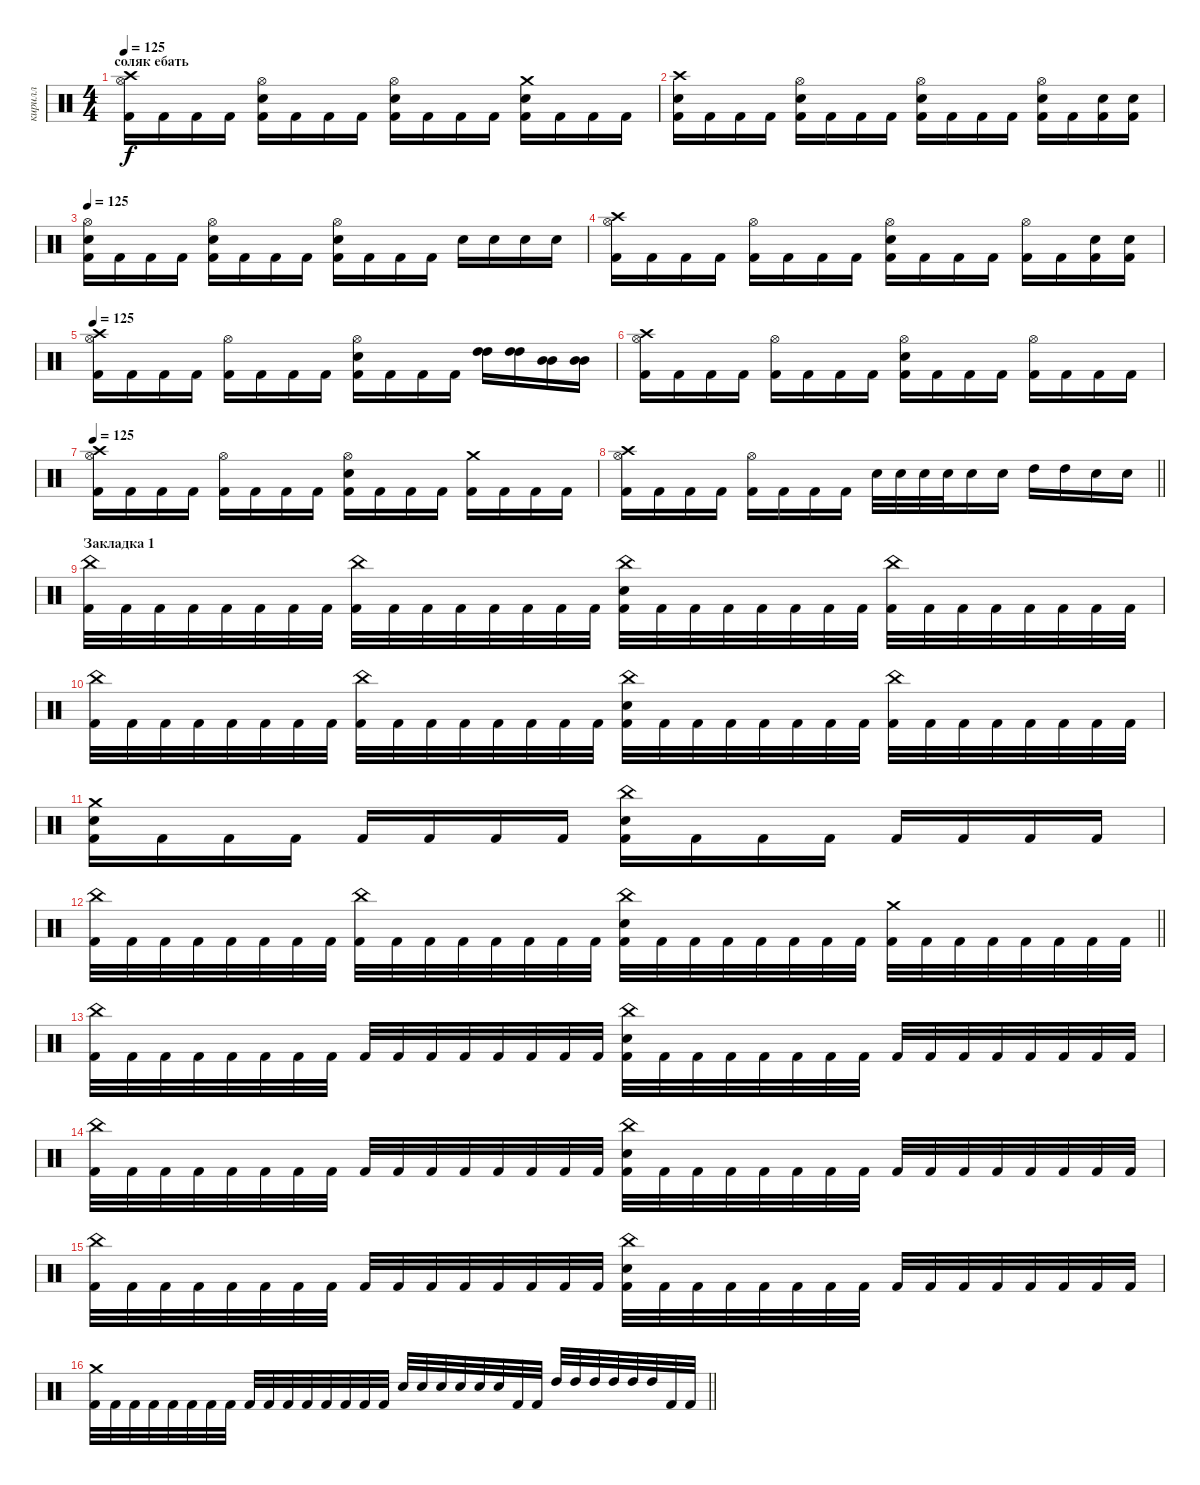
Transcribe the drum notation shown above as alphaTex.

\track ("кирилл" "кирилл") {instrument percussion}
\staff {score}
\articulation defaults
\ts (4 4)
\section ("" "соляк ебать")
\tempo 125
\clef neutral
\ks c
("Hi-Hat (open)" "Crash high (hit)" "Kick (hit) 2").16{dy f} "Kick (hit) 2".16 "Kick (hit) 2".16 "Kick (hit) 2".16 ("Hi-Hat (open)" "Electric Snare (hit)" "Kick (hit) 2").16 "Kick (hit) 2".16 "Kick (hit) 2".16 "Kick (hit) 2".16 ("Hi-Hat (open)" "Electric Snare (hit)" "Kick (hit) 2").16 "Kick (hit) 2".16 "Kick (hit) 2".16 "Kick (hit) 2".16 ("Crash medium (hit)" "Electric Snare (hit)" "Kick (hit) 2").16 "Kick (hit) 2".16 "Kick (hit) 2".16 "Kick (hit) 2".16 |
("Crash high (hit)" "Electric Snare (hit)" "Kick (hit) 2").16 "Kick (hit) 2".16 "Kick (hit) 2".16 "Kick (hit) 2".16 ("Hi-Hat (open)" "Electric Snare (hit)" "Kick (hit) 2").16 "Kick (hit) 2".16 "Kick (hit) 2".16 "Kick (hit) 2".16 ("Hi-Hat (open)" "Electric Snare (hit)" "Kick (hit) 2").16 "Kick (hit) 2".16 "Kick (hit) 2".16 "Kick (hit) 2".16 ("Hi-Hat (open)" "Electric Snare (hit)" "Kick (hit) 2").16 "Kick (hit) 2".16 ("Electric Snare (hit)" "Kick (hit) 2").16 ("Electric Snare (hit)" "Kick (hit) 2").16 |
\tempo 125
("Hi-Hat (open)" "Electric Snare (hit)" "Kick (hit) 2").16 "Kick (hit) 2".16 "Kick (hit) 2".16 "Kick (hit) 2".16 ("Hi-Hat (open)" "Electric Snare (hit)" "Kick (hit) 2").16 "Kick (hit) 2".16 "Kick (hit) 2".16 "Kick (hit) 2".16 ("Hi-Hat (open)" "Electric Snare (hit)" "Kick (hit) 2").16 "Kick (hit) 2".16 "Kick (hit) 2".16 "Kick (hit) 2".16 "Electric Snare (hit)".16 "Electric Snare (hit)".16 "Electric Snare (hit)".16 "Electric Snare (hit)".16 |
("Hi-Hat (open)" "Crash high (hit)" "Kick (hit) 2").16 "Kick (hit) 2".16 "Kick (hit) 2".16 "Kick (hit) 2".16 ("Hi-Hat (open)" "Kick (hit) 2").16 "Kick (hit) 2".16 "Kick (hit) 2".16 "Kick (hit) 2".16 ("Hi-Hat (open)" "Electric Snare (hit)" "Kick (hit) 2").16 "Kick (hit) 2".16 "Kick (hit) 2".16 "Kick (hit) 2".16 ("Hi-Hat (open)" "Kick (hit) 2").16 "Kick (hit) 2".16 ("Electric Snare (hit)" "Kick (hit) 2").16 ("Electric Snare (hit)" "Kick (hit) 2").16 |
\tempo 125
("Hi-Hat (open)" "Crash high (hit)" "Kick (hit) 2").16 "Kick (hit) 2".16 "Kick (hit) 2".16 "Kick (hit) 2".16 ("Hi-Hat (open)" "Kick (hit) 2").16 "Kick (hit) 2".16 "Kick (hit) 2".16 "Kick (hit) 2".16 ("Hi-Hat (open)" "Electric Snare (hit)" "Kick (hit) 2").16 "Kick (hit) 2".16 "Kick (hit) 2".16 "Kick (hit) 2".16 ("High Tom (hit)" "High Tom (hit)").16 ("High Tom (hit)" "High Tom (hit)").16 ("Mid Tom (hit)" "Mid Tom (hit)").16 ("Mid Tom (hit)" "Mid Tom (hit)").16 |
("Hi-Hat (open)" "Crash high (hit)" "Kick (hit) 2").16 "Kick (hit) 2".16 "Kick (hit) 2".16 "Kick (hit) 2".16 ("Hi-Hat (open)" "Kick (hit) 2").16 "Kick (hit) 2".16 "Kick (hit) 2".16 "Kick (hit) 2".16 ("Hi-Hat (open)" "Electric Snare (hit)" "Kick (hit) 2").16 "Kick (hit) 2".16 "Kick (hit) 2".16 "Kick (hit) 2".16 ("Hi-Hat (open)" "Kick (hit) 2").16 "Kick (hit) 2".16 "Kick (hit) 2".16 "Kick (hit) 2".16 |
\tempo 125
("Hi-Hat (open)" "Crash high (hit)" "Kick (hit) 2").16 "Kick (hit) 2".16 "Kick (hit) 2".16 "Kick (hit) 2".16 ("Hi-Hat (open)" "Kick (hit) 2").16 "Kick (hit) 2".16 "Kick (hit) 2".16 "Kick (hit) 2".16 ("Hi-Hat (open)" "Electric Snare (hit)" "Kick (hit) 2").16 "Kick (hit) 2".16 "Kick (hit) 2".16 "Kick (hit) 2".16 ("Crash medium (hit)" "Kick (hit) 2").16 "Kick (hit) 2".16 "Kick (hit) 2".16 "Kick (hit) 2".16 |
\barLineRight lightlight
("Hi-Hat (open)" "Crash high (hit)" "Kick (hit) 2").16 "Kick (hit) 2".16 "Kick (hit) 2".16 "Kick (hit) 2".16 ("Hi-Hat (open)" "Kick (hit) 2").16 "Kick (hit) 2".16 "Kick (hit) 2".16 "Kick (hit) 2".16 "Electric Snare (hit)".32 "Electric Snare (hit)".32 "Electric Snare (hit)".32 "Electric Snare (hit)".32 "Electric Snare (hit)".16 "Electric Snare (hit)".16 "High Tom (hit)".16 "High Tom (hit)".16 "Electric Snare (hit)".16 "Electric Snare (hit)".16 |
\section ("" "Закладка 1")
("China (hit)" "Kick (hit) 2").32 "Kick (hit) 2".32 "Kick (hit) 2".32 "Kick (hit) 2".32 "Kick (hit) 2".32 "Kick (hit) 2".32 "Kick (hit) 2".32 "Kick (hit) 2".32 ("China (hit)" "Kick (hit) 2").32 "Kick (hit) 2".32 "Kick (hit) 2".32 "Kick (hit) 2".32 "Kick (hit) 2".32 "Kick (hit) 2".32 "Kick (hit) 2".32 "Kick (hit) 2".32 ("China (hit)" "Electric Snare (hit)" "Kick (hit) 2").32 "Kick (hit) 2".32 "Kick (hit) 2".32 "Kick (hit) 2".32 "Kick (hit) 2".32 "Kick (hit) 2".32 "Kick (hit) 2".32 "Kick (hit) 2".32 ("China (hit)" "Kick (hit) 2").32 "Kick (hit) 2".32 "Kick (hit) 2".32 "Kick (hit) 2".32 "Kick (hit) 2".32 "Kick (hit) 2".32 "Kick (hit) 2".32 "Kick (hit) 2".32 |
("China (hit)" "Kick (hit) 2").32 "Kick (hit) 2".32 "Kick (hit) 2".32 "Kick (hit) 2".32 "Kick (hit) 2".32 "Kick (hit) 2".32 "Kick (hit) 2".32 "Kick (hit) 2".32 ("China (hit)" "Kick (hit) 2").32 "Kick (hit) 2".32 "Kick (hit) 2".32 "Kick (hit) 2".32 "Kick (hit) 2".32 "Kick (hit) 2".32 "Kick (hit) 2".32 "Kick (hit) 2".32 ("China (hit)" "Electric Snare (hit)" "Kick (hit) 2").32 "Kick (hit) 2".32 "Kick (hit) 2".32 "Kick (hit) 2".32 "Kick (hit) 2".32 "Kick (hit) 2".32 "Kick (hit) 2".32 "Kick (hit) 2".32 ("China (hit)" "Kick (hit) 2").32 "Kick (hit) 2".32 "Kick (hit) 2".32 "Kick (hit) 2".32 "Kick (hit) 2".32 "Kick (hit) 2".32 "Kick (hit) 2".32 "Kick (hit) 2".32 |
("Crash medium (hit)" "Electric Snare (hit)" "Kick (hit) 2").16 "Kick (hit) 2".16 "Kick (hit) 2".16 "Kick (hit) 2".16 "Kick (hit) 2".16 "Kick (hit) 2".16 "Kick (hit) 2".16 "Kick (hit) 2".16 ("China (hit)" "Electric Snare (hit)" "Kick (hit) 2").16 "Kick (hit) 2".16 "Kick (hit) 2".16 "Kick (hit) 2".16 "Kick (hit) 2".16 "Kick (hit) 2".16 "Kick (hit) 2".16 "Kick (hit) 2".16 |
\barLineRight lightlight
("China (hit)" "Kick (hit) 2").32 "Kick (hit) 2".32 "Kick (hit) 2".32 "Kick (hit) 2".32 "Kick (hit) 2".32 "Kick (hit) 2".32 "Kick (hit) 2".32 "Kick (hit) 2".32 ("China (hit)" "Kick (hit) 2").32 "Kick (hit) 2".32 "Kick (hit) 2".32 "Kick (hit) 2".32 "Kick (hit) 2".32 "Kick (hit) 2".32 "Kick (hit) 2".32 "Kick (hit) 2".32 ("China (hit)" "Electric Snare (hit)" "Kick (hit) 2").32 "Kick (hit) 2".32 "Kick (hit) 2".32 "Kick (hit) 2".32 "Kick (hit) 2".32 "Kick (hit) 2".32 "Kick (hit) 2".32 "Kick (hit) 2".32 ("Crash medium (hit)" "Kick (hit) 2").32 "Kick (hit) 2".32 "Kick (hit) 2".32 "Kick (hit) 2".32 "Kick (hit) 2".32 "Kick (hit) 2".32 "Kick (hit) 2".32 "Kick (hit) 2".32 |
("China (hit)" "Kick (hit) 2").32 "Kick (hit) 2".32 "Kick (hit) 2".32 "Kick (hit) 2".32 "Kick (hit) 2".32 "Kick (hit) 2".32 "Kick (hit) 2".32 "Kick (hit) 2".32 "Kick (hit) 2".32 "Kick (hit) 2".32 "Kick (hit) 2".32 "Kick (hit) 2".32 "Kick (hit) 2".32 "Kick (hit) 2".32 "Kick (hit) 2".32 "Kick (hit) 2".32 ("China (hit)" "Electric Snare (hit)" "Kick (hit) 2").32 "Kick (hit) 2".32 "Kick (hit) 2".32 "Kick (hit) 2".32 "Kick (hit) 2".32 "Kick (hit) 2".32 "Kick (hit) 2".32 "Kick (hit) 2".32 "Kick (hit) 2".32 "Kick (hit) 2".32 "Kick (hit) 2".32 "Kick (hit) 2".32 "Kick (hit) 2".32 "Kick (hit) 2".32 "Kick (hit) 2".32 "Kick (hit) 2".32 |
("China (hit)" "Kick (hit) 2").32 "Kick (hit) 2".32 "Kick (hit) 2".32 "Kick (hit) 2".32 "Kick (hit) 2".32 "Kick (hit) 2".32 "Kick (hit) 2".32 "Kick (hit) 2".32 "Kick (hit) 2".32 "Kick (hit) 2".32 "Kick (hit) 2".32 "Kick (hit) 2".32 "Kick (hit) 2".32 "Kick (hit) 2".32 "Kick (hit) 2".32 "Kick (hit) 2".32 ("China (hit)" "Electric Snare (hit)" "Kick (hit) 2").32 "Kick (hit) 2".32 "Kick (hit) 2".32 "Kick (hit) 2".32 "Kick (hit) 2".32 "Kick (hit) 2".32 "Kick (hit) 2".32 "Kick (hit) 2".32 "Kick (hit) 2".32 "Kick (hit) 2".32 "Kick (hit) 2".32 "Kick (hit) 2".32 "Kick (hit) 2".32 "Kick (hit) 2".32 "Kick (hit) 2".32 "Kick (hit) 2".32 |
("China (hit)" "Kick (hit) 2").32 "Kick (hit) 2".32 "Kick (hit) 2".32 "Kick (hit) 2".32 "Kick (hit) 2".32 "Kick (hit) 2".32 "Kick (hit) 2".32 "Kick (hit) 2".32 "Kick (hit) 2".32 "Kick (hit) 2".32 "Kick (hit) 2".32 "Kick (hit) 2".32 "Kick (hit) 2".32 "Kick (hit) 2".32 "Kick (hit) 2".32 "Kick (hit) 2".32 ("China (hit)" "Electric Snare (hit)" "Kick (hit) 2").32 "Kick (hit) 2".32 "Kick (hit) 2".32 "Kick (hit) 2".32 "Kick (hit) 2".32 "Kick (hit) 2".32 "Kick (hit) 2".32 "Kick (hit) 2".32 "Kick (hit) 2".32 "Kick (hit) 2".32 "Kick (hit) 2".32 "Kick (hit) 2".32 "Kick (hit) 2".32 "Kick (hit) 2".32 "Kick (hit) 2".32 "Kick (hit) 2".32 |
\barLineRight lightlight
("Crash medium (hit)" "Kick (hit) 2").32 "Kick (hit) 2".32 "Kick (hit) 2".32 "Kick (hit) 2".32 "Kick (hit) 2".32 "Kick (hit) 2".32 "Kick (hit) 2".32 "Kick (hit) 2".32 "Kick (hit) 2".32 "Kick (hit) 2".32 "Kick (hit) 2".32 "Kick (hit) 2".32 "Kick (hit) 2".32 "Kick (hit) 2".32 "Kick (hit) 2".32 "Kick (hit) 2".32 "Electric Snare (hit)".32 "Electric Snare (hit)".32 "Electric Snare (hit)".32 "Electric Snare (hit)".32 "Electric Snare (hit)".32 "Electric Snare (hit)".32 "Kick (hit) 2".32 "Kick (hit) 2".32 "High Tom (hit)".32 "High Tom (hit)".32 "High Tom (hit)".32 "High Tom (hit)".32 "High Tom (hit)".32 "High Tom (hit)".32 "Kick (hit) 2".32 "Kick (hit) 2".32
